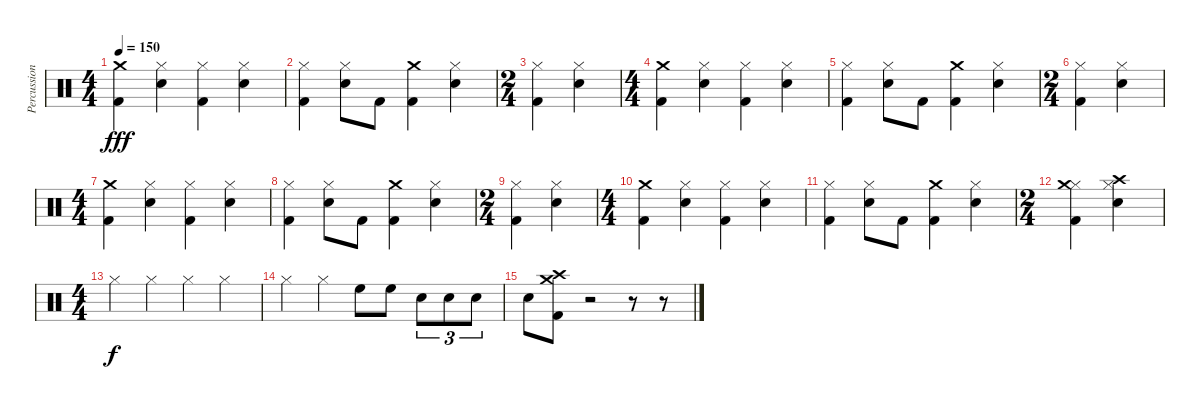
\track ("Percussion" "Percussion") {instrument percussion}
\staff {score}
\articulation defaults
\ts (4 4)
\tempo 150
\clef neutral
\ks c
("Kick (hit) 2" "Crash medium (hit)").4{dy fff} ("Hi-Hat (closed)" "Snare (hit) 2").4 ("Hi-Hat (closed)" "Kick (hit) 2").4 ("Snare (hit) 2" "Hi-Hat (closed)").4 |
("Hi-Hat (closed)" "Kick (hit) 2").4 ("Snare (hit) 2" "Hi-Hat (closed)").8 "Kick (hit) 2".8 ("Kick (hit) 2" "Crash medium (hit)").4 ("Hi-Hat (closed)" "Snare (hit) 2").4 |
\ts (2 4)
("Hi-Hat (closed)" "Kick (hit) 2").4 ("Snare (hit) 2" "Hi-Hat (closed)").4 |
\ts (4 4)
("Kick (hit) 2" "Crash medium (hit)").4 ("Hi-Hat (closed)" "Snare (hit) 2").4 ("Hi-Hat (closed)" "Kick (hit) 2").4 ("Snare (hit) 2" "Hi-Hat (closed)").4 |
("Hi-Hat (closed)" "Kick (hit) 2").4 ("Snare (hit) 2" "Hi-Hat (closed)").8 "Kick (hit) 2".8 ("Kick (hit) 2" "Crash medium (hit)").4 ("Hi-Hat (closed)" "Snare (hit) 2").4 |
\ts (2 4)
("Hi-Hat (closed)" "Kick (hit) 2").4 ("Snare (hit) 2" "Hi-Hat (closed)").4 |
\ts (4 4)
("Kick (hit) 2" "Crash medium (hit)").4 ("Hi-Hat (closed)" "Snare (hit) 2").4 ("Hi-Hat (closed)" "Kick (hit) 2").4 ("Snare (hit) 2" "Hi-Hat (closed)").4 |
("Hi-Hat (closed)" "Kick (hit) 2").4 ("Snare (hit) 2" "Hi-Hat (closed)").8 "Kick (hit) 2".8 ("Kick (hit) 2" "Crash medium (hit)").4 ("Hi-Hat (closed)" "Snare (hit) 2").4 |
\ts (2 4)
("Hi-Hat (closed)" "Kick (hit) 2").4 ("Snare (hit) 2" "Hi-Hat (closed)").4 |
\ts (4 4)
("Kick (hit) 2" "Crash medium (hit)").4 ("Hi-Hat (closed)" "Snare (hit) 2").4 ("Hi-Hat (closed)" "Kick (hit) 2").4 ("Snare (hit) 2" "Hi-Hat (closed)").4 |
("Hi-Hat (closed)" "Kick (hit) 2").4 ("Snare (hit) 2" "Hi-Hat (closed)").8 "Kick (hit) 2".8 ("Kick (hit) 2" "Crash medium (hit)").4 ("Hi-Hat (closed)" "Snare (hit) 2").4 |
\ts (2 4)
("Hi-Hat (closed)" "Kick (hit) 2" "Crash medium (hit)").4 ("Snare (hit) 2" "Hi-Hat (closed)" "Crash high (hit)").4 |
\ts (4 4)
"Hi-Hat (closed)".4{dy f} "Hi-Hat (closed)".4 "Hi-Hat (closed)".4 "Hi-Hat (closed)".4 |
"Hi-Hat (closed)".4 "Hi-Hat (closed)".4 "High Floor Tom (hit)".8 "High Floor Tom (hit)".8 "Snare (hit) 2".8{tu (3 2)} "Snare (hit) 2".8{tu (3 2)} "Snare (hit) 2".8{tu (3 2)} |
"Snare (hit) 2".8 ("Crash medium (hit)" "Crash high (hit)" "Kick (hit) 2").8 r.2 r.8 r.8
